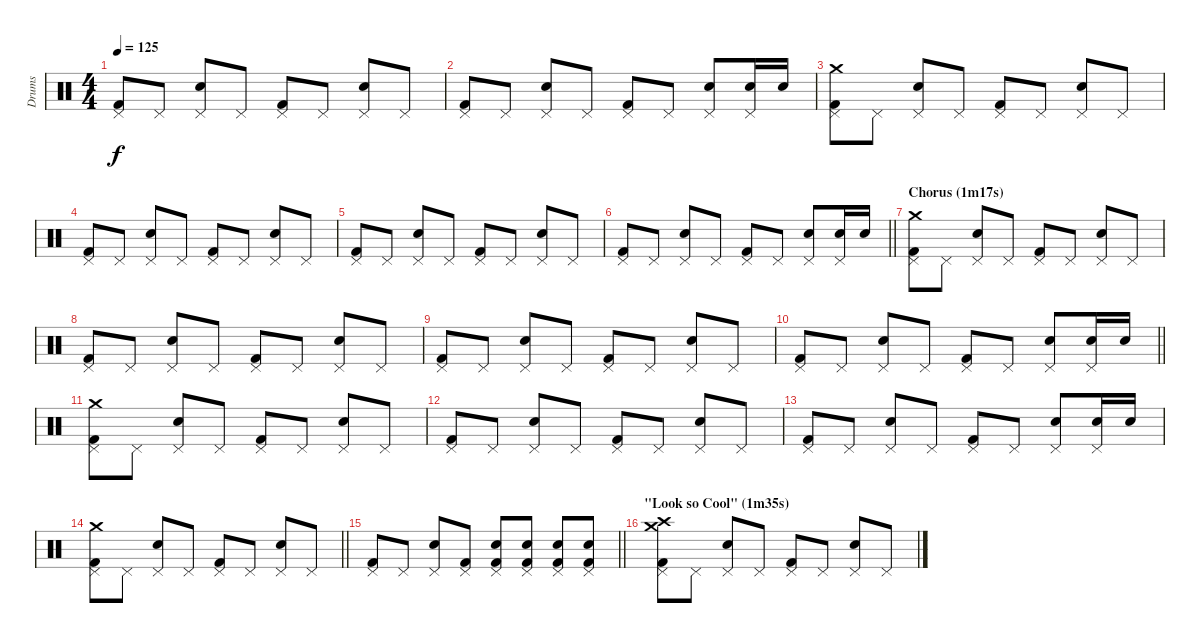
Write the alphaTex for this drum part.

\track ("Drums" "Drums") {instrument percussion}
\staff {score}
\articulation defaults
\ts (4 4)
\tempo 125
\clef neutral
\ks c
("Pedal Hi-Hat (hit)" "Kick (hit) 2").8{dy f} "Pedal Hi-Hat (hit)".8 ("Pedal Hi-Hat (hit)" "Electric Snare (hit)").8 "Pedal Hi-Hat (hit)".8 ("Pedal Hi-Hat (hit)" "Kick (hit) 2").8 "Pedal Hi-Hat (hit)".8 ("Pedal Hi-Hat (hit)" "Electric Snare (hit)").8 "Pedal Hi-Hat (hit)".8 |
("Pedal Hi-Hat (hit)" "Kick (hit) 2").8 "Pedal Hi-Hat (hit)".8 ("Pedal Hi-Hat (hit)" "Electric Snare (hit)").8 "Pedal Hi-Hat (hit)".8 ("Pedal Hi-Hat (hit)" "Kick (hit) 2").8 "Pedal Hi-Hat (hit)".8 ("Pedal Hi-Hat (hit)" "Electric Snare (hit)").8 ("Pedal Hi-Hat (hit)" "Electric Snare (hit)").16 "Electric Snare (hit)".16 |
("Pedal Hi-Hat (hit)" "Crash medium (hit)" "Kick (hit) 2").8 "Pedal Hi-Hat (hit)".8 ("Pedal Hi-Hat (hit)" "Electric Snare (hit)").8 "Pedal Hi-Hat (hit)".8 ("Pedal Hi-Hat (hit)" "Kick (hit) 2").8 "Pedal Hi-Hat (hit)".8 ("Pedal Hi-Hat (hit)" "Electric Snare (hit)").8 "Pedal Hi-Hat (hit)".8 |
("Pedal Hi-Hat (hit)" "Kick (hit) 2").8 "Pedal Hi-Hat (hit)".8 ("Pedal Hi-Hat (hit)" "Electric Snare (hit)").8 "Pedal Hi-Hat (hit)".8 ("Pedal Hi-Hat (hit)" "Kick (hit) 2").8 "Pedal Hi-Hat (hit)".8 ("Pedal Hi-Hat (hit)" "Electric Snare (hit)").8 "Pedal Hi-Hat (hit)".8 |
("Pedal Hi-Hat (hit)" "Kick (hit) 2").8 "Pedal Hi-Hat (hit)".8 ("Pedal Hi-Hat (hit)" "Electric Snare (hit)").8 "Pedal Hi-Hat (hit)".8 ("Pedal Hi-Hat (hit)" "Kick (hit) 2").8 "Pedal Hi-Hat (hit)".8 ("Pedal Hi-Hat (hit)" "Electric Snare (hit)").8 "Pedal Hi-Hat (hit)".8 |
\barLineRight lightlight
("Pedal Hi-Hat (hit)" "Kick (hit) 2").8 "Pedal Hi-Hat (hit)".8 ("Pedal Hi-Hat (hit)" "Electric Snare (hit)").8 "Pedal Hi-Hat (hit)".8 ("Pedal Hi-Hat (hit)" "Kick (hit) 2").8 "Pedal Hi-Hat (hit)".8 ("Pedal Hi-Hat (hit)" "Electric Snare (hit)").8 ("Pedal Hi-Hat (hit)" "Electric Snare (hit)").16 "Electric Snare (hit)".16 |
\section ("" "Chorus (1m17s)")
("Pedal Hi-Hat (hit)" "Crash medium (hit)" "Kick (hit) 2").8 "Pedal Hi-Hat (hit)".8 ("Pedal Hi-Hat (hit)" "Electric Snare (hit)").8 "Pedal Hi-Hat (hit)".8 ("Pedal Hi-Hat (hit)" "Kick (hit) 2").8 "Pedal Hi-Hat (hit)".8 ("Pedal Hi-Hat (hit)" "Electric Snare (hit)").8 "Pedal Hi-Hat (hit)".8 |
("Pedal Hi-Hat (hit)" "Kick (hit) 2").8 "Pedal Hi-Hat (hit)".8 ("Pedal Hi-Hat (hit)" "Electric Snare (hit)").8 "Pedal Hi-Hat (hit)".8 ("Pedal Hi-Hat (hit)" "Kick (hit) 2").8 "Pedal Hi-Hat (hit)".8 ("Pedal Hi-Hat (hit)" "Electric Snare (hit)").8 "Pedal Hi-Hat (hit)".8 |
("Pedal Hi-Hat (hit)" "Kick (hit) 2").8 "Pedal Hi-Hat (hit)".8 ("Pedal Hi-Hat (hit)" "Electric Snare (hit)").8 "Pedal Hi-Hat (hit)".8 ("Pedal Hi-Hat (hit)" "Kick (hit) 2").8 "Pedal Hi-Hat (hit)".8 ("Pedal Hi-Hat (hit)" "Electric Snare (hit)").8 "Pedal Hi-Hat (hit)".8 |
\barLineRight lightlight
("Pedal Hi-Hat (hit)" "Kick (hit) 2").8 "Pedal Hi-Hat (hit)".8 ("Pedal Hi-Hat (hit)" "Electric Snare (hit)").8 "Pedal Hi-Hat (hit)".8 ("Pedal Hi-Hat (hit)" "Kick (hit) 2").8 "Pedal Hi-Hat (hit)".8 ("Pedal Hi-Hat (hit)" "Electric Snare (hit)").8 ("Pedal Hi-Hat (hit)" "Electric Snare (hit)").16 "Electric Snare (hit)".16 |
("Pedal Hi-Hat (hit)" "Crash medium (hit)" "Kick (hit) 2").8 "Pedal Hi-Hat (hit)".8 ("Pedal Hi-Hat (hit)" "Electric Snare (hit)").8 "Pedal Hi-Hat (hit)".8 ("Pedal Hi-Hat (hit)" "Kick (hit) 2").8 "Pedal Hi-Hat (hit)".8 ("Pedal Hi-Hat (hit)" "Electric Snare (hit)").8 "Pedal Hi-Hat (hit)".8 |
("Pedal Hi-Hat (hit)" "Kick (hit) 2").8 "Pedal Hi-Hat (hit)".8 ("Pedal Hi-Hat (hit)" "Electric Snare (hit)").8 "Pedal Hi-Hat (hit)".8 ("Pedal Hi-Hat (hit)" "Kick (hit) 2").8 "Pedal Hi-Hat (hit)".8 ("Pedal Hi-Hat (hit)" "Electric Snare (hit)").8 "Pedal Hi-Hat (hit)".8 |
("Pedal Hi-Hat (hit)" "Kick (hit) 2").8 "Pedal Hi-Hat (hit)".8 ("Pedal Hi-Hat (hit)" "Electric Snare (hit)").8 "Pedal Hi-Hat (hit)".8 ("Pedal Hi-Hat (hit)" "Kick (hit) 2").8 "Pedal Hi-Hat (hit)".8 ("Pedal Hi-Hat (hit)" "Electric Snare (hit)").8 ("Pedal Hi-Hat (hit)" "Electric Snare (hit)").16 "Electric Snare (hit)".16 |
\barLineRight lightlight
("Pedal Hi-Hat (hit)" "Crash medium (hit)" "Kick (hit) 2").8 "Pedal Hi-Hat (hit)".8 ("Pedal Hi-Hat (hit)" "Electric Snare (hit)").8 "Pedal Hi-Hat (hit)".8 ("Pedal Hi-Hat (hit)" "Kick (hit) 2").8 "Pedal Hi-Hat (hit)".8 ("Pedal Hi-Hat (hit)" "Electric Snare (hit)").8 "Pedal Hi-Hat (hit)".8 |
\barLineRight lightlight
("Pedal Hi-Hat (hit)" "Kick (hit) 2").8 "Pedal Hi-Hat (hit)".8 ("Pedal Hi-Hat (hit)" "Electric Snare (hit)").8 ("Pedal Hi-Hat (hit)" "Kick (hit) 2").8 ("Pedal Hi-Hat (hit)" "Electric Snare (hit)" "Kick (hit) 2").8 ("Pedal Hi-Hat (hit)" "Electric Snare (hit)" "Kick (hit) 2").8 ("Pedal Hi-Hat (hit)" "Electric Snare (hit)" "Kick (hit) 2").8 ("Pedal Hi-Hat (hit)" "Electric Snare (hit)" "Kick (hit) 2").8 |
\section ("" "\"Look so Cool\" (1m35s)")
("Pedal Hi-Hat (hit)" "Crash medium (hit)" "Crash high (hit)" "Kick (hit) 2").8 "Pedal Hi-Hat (hit)".8 ("Pedal Hi-Hat (hit)" "Electric Snare (hit)").8 "Pedal Hi-Hat (hit)".8 ("Pedal Hi-Hat (hit)" "Kick (hit) 2").8 "Pedal Hi-Hat (hit)".8 ("Pedal Hi-Hat (hit)" "Electric Snare (hit)").8 "Pedal Hi-Hat (hit)".8
